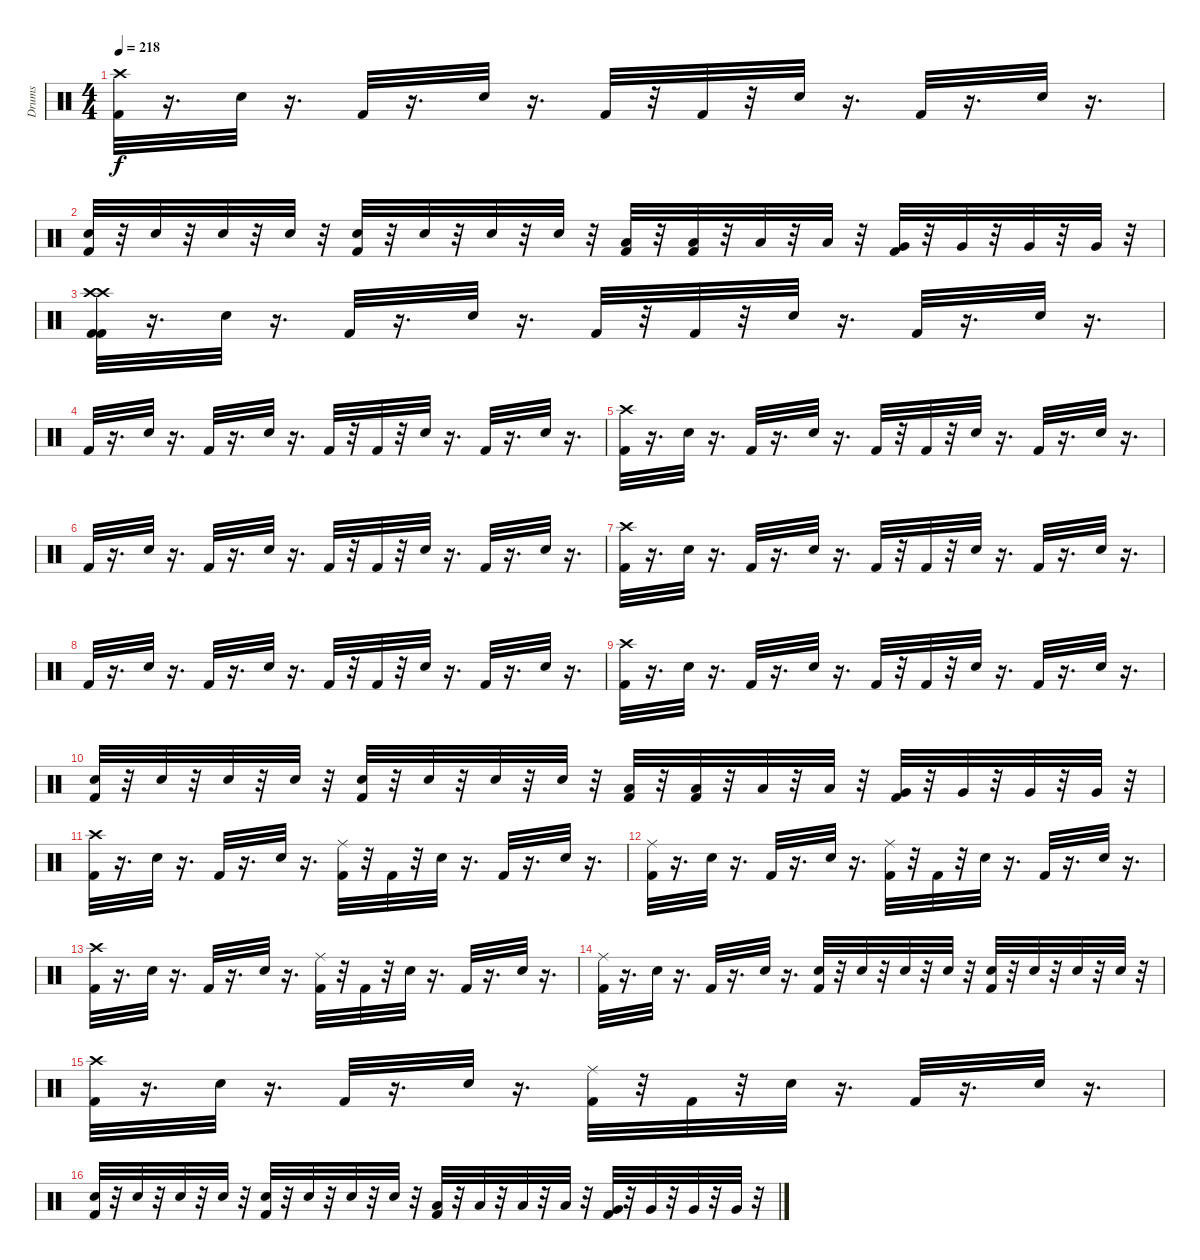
\track ("Drums" "Drums") {instrument percussion}
\staff {score}
\articulation defaults
\ts (4 4)
\tempo 218
\clef neutral
\ks c
("Kick (hit) 2" "Crash high (hit)").32{dy f} r.16{d} "Electric Snare (hit)".32 r.16{d} "Kick (hit) 2".32 r.16{d} "Electric Snare (hit)".32 r.16{d} "Kick (hit) 2".32 r.32 "Kick (hit) 2".32 r.32 "Electric Snare (hit)".32 r.16{d} "Kick (hit) 2".32 r.16{d} "Electric Snare (hit)".32 r.16{d} |
("Kick (hit) 2" "Electric Snare (hit)").32 r.32 "Electric Snare (hit)".32 r.32 "Electric Snare (hit)".32 r.32 "Electric Snare (hit)".32 r.32 ("Kick (hit) 2" "Electric Snare (hit)").32 r.32 "Electric Snare (hit)".32 r.32 "Electric Snare (hit)".32 r.32 "Electric Snare (hit)".32 r.32 ("Kick (hit) 2" "Low Tom (hit)").32 r.32 ("Kick (hit) 2" "Low Tom (hit)").32 r.32 "Low Tom (hit)".32 r.32 "Low Tom (hit)".32 r.32 ("Kick (hit) 2" "Very Low Tom (hit)").32 r.32 "Very Low Tom (hit)".32 r.32 "Very Low Tom (hit)".32 r.32 "Very Low Tom (hit)".32 r.32 |
("Crash high (hit)" "Kick (hit) 2" "Kick (hit) 2" "Crash high (hit)").32 r.16{d} "Electric Snare (hit)".32 r.16{d} "Kick (hit) 2".32 r.16{d} "Electric Snare (hit)".32 r.16{d} "Kick (hit) 2".32 r.32 "Kick (hit) 2".32 r.32 "Electric Snare (hit)".32 r.16{d} "Kick (hit) 2".32 r.16{d} "Electric Snare (hit)".32 r.16{d} |
"Kick (hit) 2".32 r.16{d} "Electric Snare (hit)".32 r.16{d} "Kick (hit) 2".32 r.16{d} "Electric Snare (hit)".32 r.16{d} "Kick (hit) 2".32 r.32 "Kick (hit) 2".32 r.32 "Electric Snare (hit)".32 r.16{d} "Kick (hit) 2".32 r.16{d} "Electric Snare (hit)".32 r.16{d} |
("Kick (hit) 2" "Crash high (hit)").32 r.16{d} "Electric Snare (hit)".32 r.16{d} "Kick (hit) 2".32 r.16{d} "Electric Snare (hit)".32 r.16{d} "Kick (hit) 2".32 r.32 "Kick (hit) 2".32 r.32 "Electric Snare (hit)".32 r.16{d} "Kick (hit) 2".32 r.16{d} "Electric Snare (hit)".32 r.16{d} |
"Kick (hit) 2".32 r.16{d} "Electric Snare (hit)".32 r.16{d} "Kick (hit) 2".32 r.16{d} "Electric Snare (hit)".32 r.16{d} "Kick (hit) 2".32 r.32 "Kick (hit) 2".32 r.32 "Electric Snare (hit)".32 r.16{d} "Kick (hit) 2".32 r.16{d} "Electric Snare (hit)".32 r.16{d} |
("Kick (hit) 2" "Crash high (hit)").32 r.16{d} "Electric Snare (hit)".32 r.16{d} "Kick (hit) 2".32 r.16{d} "Electric Snare (hit)".32 r.16{d} "Kick (hit) 2".32 r.32 "Kick (hit) 2".32 r.32 "Electric Snare (hit)".32 r.16{d} "Kick (hit) 2".32 r.16{d} "Electric Snare (hit)".32 r.16{d} |
"Kick (hit) 2".32 r.16{d} "Electric Snare (hit)".32 r.16{d} "Kick (hit) 2".32 r.16{d} "Electric Snare (hit)".32 r.16{d} "Kick (hit) 2".32 r.32 "Kick (hit) 2".32 r.32 "Electric Snare (hit)".32 r.16{d} "Kick (hit) 2".32 r.16{d} "Electric Snare (hit)".32 r.16{d} |
("Kick (hit) 2" "Crash high (hit)").32 r.16{d} "Electric Snare (hit)".32 r.16{d} "Kick (hit) 2".32 r.16{d} "Electric Snare (hit)".32 r.16{d} "Kick (hit) 2".32 r.32 "Kick (hit) 2".32 r.32 "Electric Snare (hit)".32 r.16{d} "Kick (hit) 2".32 r.16{d} "Electric Snare (hit)".32 r.16{d} |
("Kick (hit) 2" "Electric Snare (hit)").32 r.32 "Electric Snare (hit)".32 r.32 "Electric Snare (hit)".32 r.32 "Electric Snare (hit)".32 r.32 ("Kick (hit) 2" "Electric Snare (hit)").32 r.32 "Electric Snare (hit)".32 r.32 "Electric Snare (hit)".32 r.32 "Electric Snare (hit)".32 r.32 ("Kick (hit) 2" "Low Tom (hit)").32 r.32 ("Kick (hit) 2" "Low Tom (hit)").32 r.32 "Low Tom (hit)".32 r.32 "Low Tom (hit)".32 r.32 ("Kick (hit) 2" "Very Low Tom (hit)").32 r.32 "Very Low Tom (hit)".32 r.32 "Very Low Tom (hit)".32 r.32 "Very Low Tom (hit)".32 r.32 |
("Kick (hit) 2" "Crash high (hit)").32 r.16{d} "Electric Snare (hit)".32 r.16{d} "Kick (hit) 2".32 r.16{d} "Electric Snare (hit)".32 r.16{d} ("Kick (hit) 2" "Ride (middle)").32 r.32 "Kick (hit) 2".32 r.32 "Electric Snare (hit)".32 r.16{d} "Kick (hit) 2".32 r.16{d} "Electric Snare (hit)".32 r.16{d} |
("Kick (hit) 2" "Ride (middle)").32 r.16{d} "Electric Snare (hit)".32 r.16{d} "Kick (hit) 2".32 r.16{d} "Electric Snare (hit)".32 r.16{d} ("Kick (hit) 2" "Ride (middle)").32 r.32 "Kick (hit) 2".32 r.32 "Electric Snare (hit)".32 r.16{d} "Kick (hit) 2".32 r.16{d} "Electric Snare (hit)".32 r.16{d} |
("Kick (hit) 2" "Crash high (hit)").32 r.16{d} "Electric Snare (hit)".32 r.16{d} "Kick (hit) 2".32 r.16{d} "Electric Snare (hit)".32 r.16{d} ("Kick (hit) 2" "Ride (middle)").32 r.32 "Kick (hit) 2".32 r.32 "Electric Snare (hit)".32 r.16{d} "Kick (hit) 2".32 r.16{d} "Electric Snare (hit)".32 r.16{d} |
("Kick (hit) 2" "Ride (middle)").32 r.16{d} "Electric Snare (hit)".32 r.16{d} "Kick (hit) 2".32 r.16{d} "Electric Snare (hit)".32 r.16{d} ("Kick (hit) 2" "Electric Snare (hit)").32 r.32 "Electric Snare (hit)".32 r.32 "Electric Snare (hit)".32 r.32 "Electric Snare (hit)".32 r.32 ("Kick (hit) 2" "Electric Snare (hit)").32 r.32 "Electric Snare (hit)".32 r.32 "Electric Snare (hit)".32 r.32 "Electric Snare (hit)".32 r.32 |
("Kick (hit) 2" "Crash high (hit)").32 r.16{d} "Electric Snare (hit)".32 r.16{d} "Kick (hit) 2".32 r.16{d} "Electric Snare (hit)".32 r.16{d} ("Kick (hit) 2" "Ride (middle)").32 r.32 "Kick (hit) 2".32 r.32 "Electric Snare (hit)".32 r.16{d} "Kick (hit) 2".32 r.16{d} "Electric Snare (hit)".32 r.16{d} |
("Kick (hit) 2" "Electric Snare (hit)").32 r.32 "Electric Snare (hit)".32 r.32 "Electric Snare (hit)".32 r.32 "Electric Snare (hit)".32 r.32 ("Kick (hit) 2" "Electric Snare (hit)").32 r.32 "Electric Snare (hit)".32 r.32 "Electric Snare (hit)".32 r.32 "Electric Snare (hit)".32 r.32 ("Kick (hit) 2" "Low Tom (hit)").32 r.32 "Low Tom (hit)".32 r.32 "Low Tom (hit)".32 r.32 "Low Tom (hit)".32 r.32 ("Kick (hit) 2" "Very Low Tom (hit)").32 r.32 "Very Low Tom (hit)".32 r.32 "Very Low Tom (hit)".32 r.32 "Very Low Tom (hit)".32 r.32
